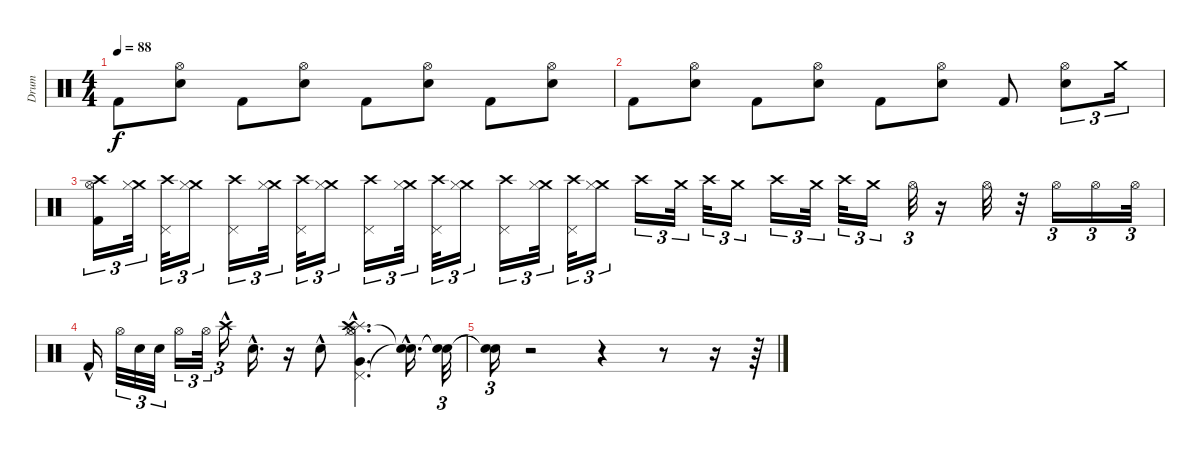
\track ("Drum" "Drum") {instrument percussion}
\staff {score}
\articulation defaults
\ts (4 4)
\tempo 88
\clef neutral
\ks c "Kick (hit) 2".8{dy f}
("Snare (hit) 2" "Hi-Hat (open)").8 "Kick (hit) 2".8 ("Snare (hit) 2" "Hi-Hat (open)").8 "Kick (hit) 2".8 ("Snare (hit) 2" "Hi-Hat (open)").8 "Kick (hit) 2".8 ("Hi-Hat (open)" "Snare (hit) 2").8 |
"Kick (hit) 2".8 ("Hi-Hat (open)" "Snare (hit) 2").8 "Kick (hit) 2".8 ("Hi-Hat (open)" "Snare (hit) 2").8 "Kick (hit) 2".8 ("Snare (hit) 2" "Hi-Hat (open)").8 "Kick (hit) 2".8 ("Hi-Hat (open)" "Snare (hit) 2").8{tu (3 2)} "Crash medium (hit)".16{tu (3 2)} |
("Crash high (hit)" "Hi-Hat (open)" "Kick (hit) 2").16{tu (3 2)} ("Crash medium (hit)" "Hi-Hat (closed)").32{tu (3 2)} ("Crash high (hit)" "Pedal Hi-Hat (hit)").32{tu (3 2)} ("Crash medium (hit)" "Hi-Hat (closed)").16{tu (3 2)} ("Crash high (hit)" "Pedal Hi-Hat (hit)").16{tu (3 2)} ("Crash medium (hit)" "Hi-Hat (closed)").32{tu (3 2)} ("Crash high (hit)" "Pedal Hi-Hat (hit)").32{tu (3 2)} ("Crash medium (hit)" "Hi-Hat (closed)").16{tu (3 2)} ("Crash high (hit)" "Pedal Hi-Hat (hit)").16{tu (3 2)} ("Crash medium (hit)" "Hi-Hat (closed)").32{tu (3 2)} ("Crash high (hit)" "Pedal Hi-Hat (hit)").32{tu (3 2)} ("Crash medium (hit)" "Hi-Hat (closed)").16{tu (3 2)} ("Crash high (hit)" "Pedal Hi-Hat (hit)").16{tu (3 2)} ("Crash medium (hit)" "Hi-Hat (closed)").32{tu (3 2)} ("Crash high (hit)" "Pedal Hi-Hat (hit)").32{tu (3 2)} ("Crash medium (hit)" "Hi-Hat (closed)").16{tu (3 2)} "Crash high (hit)".16{tu (3 2)} "Crash medium (hit)".32{tu (3 2)} "Crash high (hit)".32{tu (3 2)} "Crash medium (hit)".16{tu (3 2)} "Crash high (hit)".16{tu (3 2)} "Crash medium (hit)".32{tu (3 2)} "Crash high (hit)".32{tu (3 2)} "Crash medium (hit)".16{tu (3 2)} "Hi-Hat (open)".32{tu (3 2)} r.16 "Hi-Hat (open)".32 r.32 "Hi-Hat (open)".16{tu (3 2)} "Hi-Hat (open)".16{tu (3 2)} "Hi-Hat (open)".32{tu (3 2)} |
"Kick (hit) 2"{hac}.16 "Hi-Hat (open)".32{tu (3 2)} "Electric Snare (hit)".32{tu (3 2)} "Snare (hit) 2".32{tu (3 2)} "Hi-Hat (open)".16{tu (3 2)} "Hi-Hat (open)".32{tu (3 2)} "Crash high (hit)"{hac}.16{tu (3 2)} "Electric Snare (hit)"{hac}.16{d} r.16 "Electric Snare (hit)"{hac}.8 ("Hi-Hat (closed)" "Pedal Hi-Hat (hit)" "Very Low Tom (hit)" "Splash (hit)"{hac} "Crash high (hit)"{hac} "Hi-Hat (open)").4{d} ("Snare (hit)"{hac t} "Snare (hit)"{hac t}).16{d} ("Snare (hit)"{t} "Snare (hit)"{t}).32{tu (3 2)} |
("Snare (hit)"{t} "Snare (hit)"{t}).16{tu (3 2)} r.2 r.4 r.8 r.16 r.64
